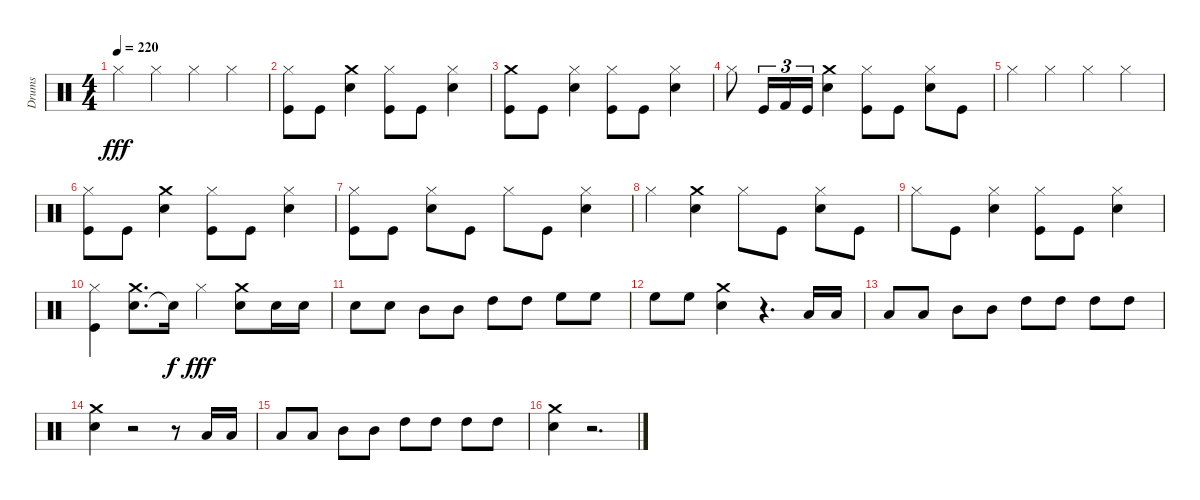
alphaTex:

\track ("Drums" "Drums") {instrument percussion}
\staff {score}
\articulation defaults
\ts (4 4)
\tempo 220
\clef neutral
\ks c "Hi-Hat (closed)".4{dy fff} "Hi-Hat (closed)".4 "Hi-Hat (closed)".4 "Hi-Hat (closed)".4
|
("Kick (hit)" "Hi-Hat (closed)").8 "Kick (hit)".8 ("Snare (hit) 2" "Crash medium (hit)").4 ("Hi-Hat (closed)" "Kick (hit)").8 "Kick (hit)".8 ("Snare (hit) 2" "Hi-Hat (closed)").4 |
("Kick (hit)" "Crash medium (hit)").8 "Kick (hit)".8 ("Snare (hit) 2" "Hi-Hat (closed)").4 ("Kick (hit)" "Hi-Hat (closed)").8 "Kick (hit)".8 ("Snare (hit) 2" "Hi-Hat (closed)").4 |
"Hi-Hat (closed)".8 "Kick (hit)".16{tu (3 2)} "Kick (hit) 2".16{tu (3 2)} "Kick (hit)".16{tu (3 2)} ("Snare (hit) 2" "Crash medium (hit)").4 ("Kick (hit)" "Hi-Hat (closed)").8 "Kick (hit)".8 ("Snare (hit) 2" "Hi-Hat (closed)").8 "Kick (hit)".8 |
"Hi-Hat (closed)".4 "Hi-Hat (closed)".4 "Hi-Hat (closed)".4 "Hi-Hat (closed)".4 |
("Kick (hit)" "Hi-Hat (closed)").8 "Kick (hit)".8 ("Snare (hit) 2" "Crash medium (hit)").4 ("Kick (hit)" "Hi-Hat (closed)").8 "Kick (hit)".8 ("Hi-Hat (closed)" "Snare (hit) 2").4 |
("Kick (hit)" "Hi-Hat (closed)").8 "Kick (hit)".8 ("Snare (hit) 2" "Hi-Hat (closed)").8 "Kick (hit)".8 "Hi-Hat (closed)".8 "Kick (hit)".8 ("Snare (hit) 2" "Hi-Hat (closed)").4 |
"Hi-Hat (closed)".4 ("Crash medium (hit)" "Snare (hit) 2").4 "Hi-Hat (closed)".8 "Kick (hit)".8 ("Snare (hit) 2" "Hi-Hat (closed)").8 "Kick (hit)".8 |
"Hi-Hat (closed)".8 "Kick (hit)".8 ("Snare (hit) 2" "Hi-Hat (closed)").4 ("Kick (hit)" "Hi-Hat (closed)").8 "Kick (hit)".8 ("Snare (hit) 2" "Hi-Hat (closed)").4 |
("Kick (hit)" "Hi-Hat (closed)").4 ("Snare (hit) 2" "Crash medium (hit)").8{d} "Snare (hit)"{t}.16{dy f} "Hi-Hat (closed)".4{dy fff} ("Snare (hit) 2" "Crash medium (hit)").8 "Snare (hit) 2".16 "Snare (hit) 2".16 |
"Snare (hit) 2".8 "Snare (hit) 2".8 "Mid Tom (hit)".8 "Mid Tom (hit)".8 "High Tom (hit)".8 "High Tom (hit)".8 "High Floor Tom (hit)".8 "High Floor Tom (hit)".8 |
"High Floor Tom (hit)".8 "High Floor Tom (hit)".8 ("Snare (hit) 2" "Crash medium (hit)").4 r.4{d} "Low Tom (hit)".16 "Low Tom (hit)".16 |
"Low Tom (hit)".8 "Low Tom (hit)".8 "Mid Tom (hit)".8 "Mid Tom (hit)".8 "High Tom (hit)".8 "High Tom (hit)".8 "High Tom (hit)".8 "High Tom (hit)".8 |
("Snare (hit) 2" "Crash medium (hit)").4 r.2 r.8 "Low Tom (hit)".16 "Low Tom (hit)".16 |
"Low Tom (hit)".8 "Low Tom (hit)".8 "Mid Tom (hit)".8 "Mid Tom (hit)".8 "High Tom (hit)".8 "High Tom (hit)".8 "High Tom (hit)".8 "High Tom (hit)".8 |
("Snare (hit) 2" "Crash medium (hit)").4 r.2{d}
